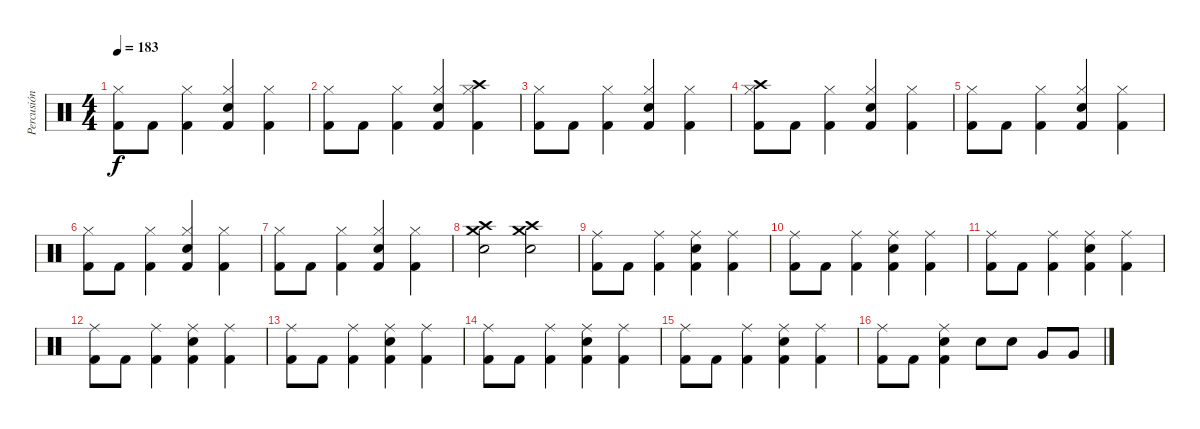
\track ("Percusión" "Percusión") {instrument percussion}
\staff {score}
\articulation defaults
\ts (4 4)
\tempo 183
\clef neutral
\ks c
("Kick (hit) 2" "Hi-Hat (closed)").8{dy f} "Kick (hit) 2".8 ("Kick (hit) 2" "Hi-Hat (closed)").4 ("Kick (hit) 2" "Electric Snare (hit)" "Hi-Hat (closed)").4 ("Kick (hit) 2" "Hi-Hat (closed)").4 |
("Kick (hit) 2" "Hi-Hat (closed)").8 "Kick (hit) 2".8 ("Kick (hit) 2" "Hi-Hat (closed)").4 ("Kick (hit) 2" "Electric Snare (hit)" "Hi-Hat (closed)").4 ("Kick (hit) 2" "Hi-Hat (closed)" "Crash high (hit)").4 |
("Kick (hit) 2" "Hi-Hat (closed)").8 "Kick (hit) 2".8 ("Kick (hit) 2" "Hi-Hat (closed)").4 ("Kick (hit) 2" "Electric Snare (hit)" "Hi-Hat (closed)").4 ("Kick (hit) 2" "Hi-Hat (closed)").4 |
("Kick (hit) 2" "Hi-Hat (closed)" "Crash high (hit)").8 "Kick (hit) 2".8 ("Kick (hit) 2" "Hi-Hat (closed)").4 ("Kick (hit) 2" "Electric Snare (hit)" "Hi-Hat (closed)").4 ("Kick (hit) 2" "Hi-Hat (closed)").4 |
("Kick (hit) 2" "Hi-Hat (closed)").8 "Kick (hit) 2".8 ("Kick (hit) 2" "Hi-Hat (closed)").4 ("Kick (hit) 2" "Electric Snare (hit)" "Hi-Hat (closed)").4 ("Kick (hit) 2" "Hi-Hat (closed)").4 |
("Kick (hit) 2" "Hi-Hat (closed)").8 "Kick (hit) 2".8 ("Kick (hit) 2" "Hi-Hat (closed)").4 ("Kick (hit) 2" "Electric Snare (hit)" "Hi-Hat (closed)").4 ("Kick (hit) 2" "Hi-Hat (closed)").4 |
("Kick (hit) 2" "Hi-Hat (closed)").8 "Kick (hit) 2".8 ("Kick (hit) 2" "Hi-Hat (closed)").4 ("Kick (hit) 2" "Electric Snare (hit)" "Hi-Hat (closed)").4 ("Kick (hit) 2" "Hi-Hat (closed)").4 |
("Electric Snare (hit)" "Crash medium (hit)" "Crash high (hit)").2 ("Electric Snare (hit)" "Crash medium (hit)" "Crash high (hit)").2 |
("Kick (hit) 2" "Ride (middle)").8 "Kick (hit) 2".8 ("Kick (hit) 2" "Ride (middle)").4 ("Kick (hit) 2" "Electric Snare (hit)" "Ride (middle)").4 ("Kick (hit) 2" "Ride (middle)").4 |
("Kick (hit) 2" "Ride (middle)").8 "Kick (hit) 2".8 ("Kick (hit) 2" "Ride (middle)").4 ("Kick (hit) 2" "Electric Snare (hit)" "Ride (middle)").4 ("Kick (hit) 2" "Ride (middle)").4 |
("Kick (hit) 2" "Ride (middle)").8 "Kick (hit) 2".8 ("Kick (hit) 2" "Ride (middle)").4 ("Kick (hit) 2" "Electric Snare (hit)" "Ride (middle)").4 ("Kick (hit) 2" "Ride (middle)").4 |
("Kick (hit) 2" "Ride (middle)").8 "Kick (hit) 2".8 ("Kick (hit) 2" "Ride (middle)").4 ("Kick (hit) 2" "Electric Snare (hit)" "Ride (middle)").4 ("Kick (hit) 2" "Ride (middle)").4 |
("Kick (hit) 2" "Ride (middle)").8 "Kick (hit) 2".8 ("Kick (hit) 2" "Ride (middle)").4 ("Kick (hit) 2" "Electric Snare (hit)" "Ride (middle)").4 ("Kick (hit) 2" "Ride (middle)").4 |
("Kick (hit) 2" "Ride (middle)").8 "Kick (hit) 2".8 ("Kick (hit) 2" "Ride (middle)").4 ("Kick (hit) 2" "Electric Snare (hit)" "Ride (middle)").4 ("Kick (hit) 2" "Ride (middle)").4 |
("Kick (hit) 2" "Ride (middle)").8 "Kick (hit) 2".8 ("Kick (hit) 2" "Ride (middle)").4 ("Kick (hit) 2" "Electric Snare (hit)" "Ride (middle)").4 ("Kick (hit) 2" "Ride (middle)").4 |
("Kick (hit) 2" "Ride (middle)").8 "Kick (hit) 2".8 ("Kick (hit) 2" "Electric Snare (hit)" "Ride (middle)").4 "Electric Snare (hit)".8 "Electric Snare (hit)".8 "Very Low Tom (hit)".8 "Very Low Tom (hit)".8
